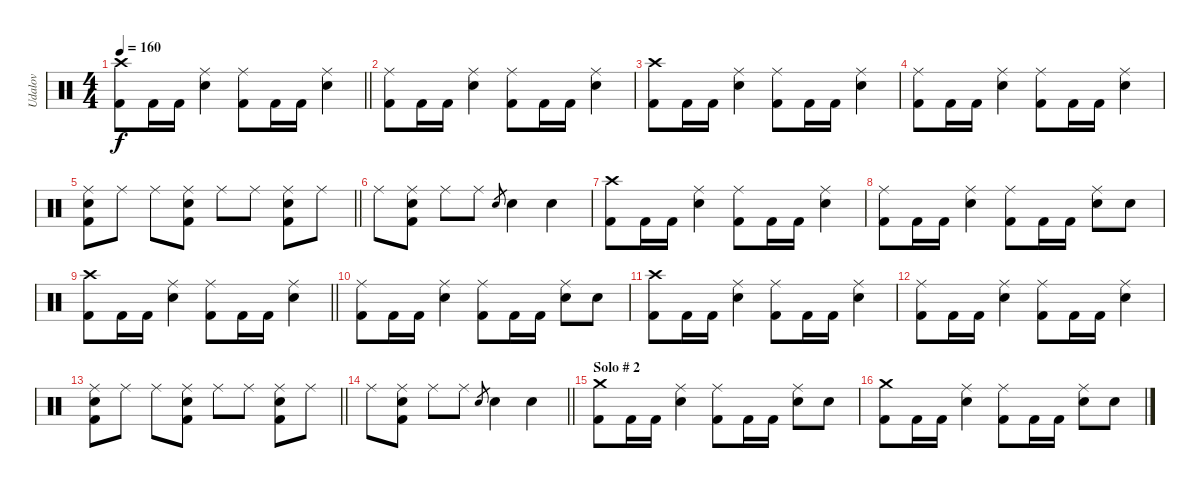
\track ("Udalov" "Udalov") {instrument percussion}
\staff {score}
\articulation defaults
\ts (4 4)
\tempo 160
\clef neutral
\barLineRight lightlight
\ks c
("Kick (hit) 2" "Crash high (hit)").8{dy f} "Kick (hit) 2".16 "Kick (hit) 2".16 ("Snare (hit) 2" "Ride (middle)").4 ("Kick (hit) 2" "Ride (middle)").8 "Kick (hit) 2".16 "Kick (hit) 2".16 ("Snare (hit) 2" "Ride (middle)").4 |
("Kick (hit) 2" "Ride (middle)").8 "Kick (hit) 2".16 "Kick (hit) 2".16 ("Snare (hit) 2" "Ride (middle)").4 ("Kick (hit) 2" "Ride (middle)").8 "Kick (hit) 2".16 "Kick (hit) 2".16 ("Snare (hit) 2" "Ride (middle)").4 |
("Kick (hit) 2" "Crash high (hit)").8 "Kick (hit) 2".16 "Kick (hit) 2".16 ("Snare (hit) 2" "Ride (middle)").4 ("Kick (hit) 2" "Ride (middle)").8 "Kick (hit) 2".16 "Kick (hit) 2".16 ("Snare (hit) 2" "Ride (middle)").4 |
("Kick (hit) 2" "Ride (middle)").8 "Kick (hit) 2".16 "Kick (hit) 2".16 ("Snare (hit) 2" "Ride (middle)").4 ("Kick (hit) 2" "Ride (middle)").8 "Kick (hit) 2".16 "Kick (hit) 2".16 ("Snare (hit) 2" "Ride (middle)").4 |
\barLineRight lightlight
("Snare (hit) 2" "Ride (middle)" "Kick (hit) 2").8 "Ride (middle)".8 "Ride (middle)".8 ("Snare (hit) 2" "Ride (middle)" "Kick (hit) 2").8 "Ride (middle)".8 "Ride (middle)".8 ("Snare (hit) 2" "Ride (middle)" "Kick (hit) 2").8 "Ride (middle)".8 |
"Ride (middle)".8 ("Snare (hit) 2" "Ride (middle)" "Kick (hit) 2").8 "Ride (middle)".8 "Ride (middle)".8 "Snare (hit) 2".8{gr} "Snare (hit) 2".4 "Snare (hit) 2".4 |
("Kick (hit) 2" "Crash high (hit)").8 "Kick (hit) 2".16 "Kick (hit) 2".16 ("Snare (hit) 2" "Ride (middle)").4 ("Kick (hit) 2" "Ride (middle)").8 "Kick (hit) 2".16 "Kick (hit) 2".16 ("Snare (hit) 2" "Ride (middle)").4 |
("Kick (hit) 2" "Ride (middle)").8 "Kick (hit) 2".16 "Kick (hit) 2".16 ("Snare (hit) 2" "Ride (middle)").4 ("Kick (hit) 2" "Ride (middle)").8 "Kick (hit) 2".16 "Kick (hit) 2".16 ("Snare (hit) 2" "Ride (middle)").8 "Snare (hit) 2".8 |
\barLineRight lightlight
("Kick (hit) 2" "Crash high (hit)").8 "Kick (hit) 2".16 "Kick (hit) 2".16 ("Snare (hit) 2" "Ride (middle)").4 ("Kick (hit) 2" "Ride (middle)").8 "Kick (hit) 2".16 "Kick (hit) 2".16 ("Snare (hit) 2" "Ride (middle)").4 |
("Kick (hit) 2" "Ride (middle)").8 "Kick (hit) 2".16 "Kick (hit) 2".16 ("Snare (hit) 2" "Ride (middle)").4 ("Kick (hit) 2" "Ride (middle)").8 "Kick (hit) 2".16 "Kick (hit) 2".16 ("Snare (hit) 2" "Ride (middle)").8 "Snare (hit) 2".8 |
("Kick (hit) 2" "Crash high (hit)").8 "Kick (hit) 2".16 "Kick (hit) 2".16 ("Snare (hit) 2" "Ride (middle)").4 ("Kick (hit) 2" "Ride (middle)").8 "Kick (hit) 2".16 "Kick (hit) 2".16 ("Snare (hit) 2" "Ride (middle)").4 |
("Kick (hit) 2" "Ride (middle)").8 "Kick (hit) 2".16 "Kick (hit) 2".16 ("Snare (hit) 2" "Ride (middle)").4 ("Kick (hit) 2" "Ride (middle)").8 "Kick (hit) 2".16 "Kick (hit) 2".16 ("Snare (hit) 2" "Ride (middle)").4 |
\barLineRight lightlight
("Snare (hit) 2" "Ride (middle)" "Kick (hit) 2").8 "Ride (middle)".8 "Ride (middle)".8 ("Snare (hit) 2" "Ride (middle)" "Kick (hit) 2").8 "Ride (middle)".8 "Ride (middle)".8 ("Snare (hit) 2" "Ride (middle)" "Kick (hit) 2").8 "Ride (middle)".8 |
\barLineRight lightlight "Ride (middle)".8
("Snare (hit) 2" "Ride (middle)" "Kick (hit) 2").8 "Ride (middle)".8 "Ride (middle)".8 "Snare (hit) 2".8{gr} "Snare (hit) 2".4 "Snare (hit) 2".4 |
\section ("" "Solo # 2")
("Kick (hit) 2" "Crash medium (hit)").8 "Kick (hit) 2".16 "Kick (hit) 2".16 ("Snare (hit) 2" "Ride (middle)").4 ("Kick (hit) 2" "Ride (middle)").8 "Kick (hit) 2".16 "Kick (hit) 2".16 ("Snare (hit) 2" "Ride (middle)").8 "Snare (hit) 2".8 |
("Kick (hit) 2" "Crash medium (hit)").8 "Kick (hit) 2".16 "Kick (hit) 2".16 ("Snare (hit) 2" "Ride (middle)").4 ("Kick (hit) 2" "Ride (middle)").8 "Kick (hit) 2".16 "Kick (hit) 2".16 ("Snare (hit) 2" "Ride (middle)").8 "Snare (hit) 2".8
